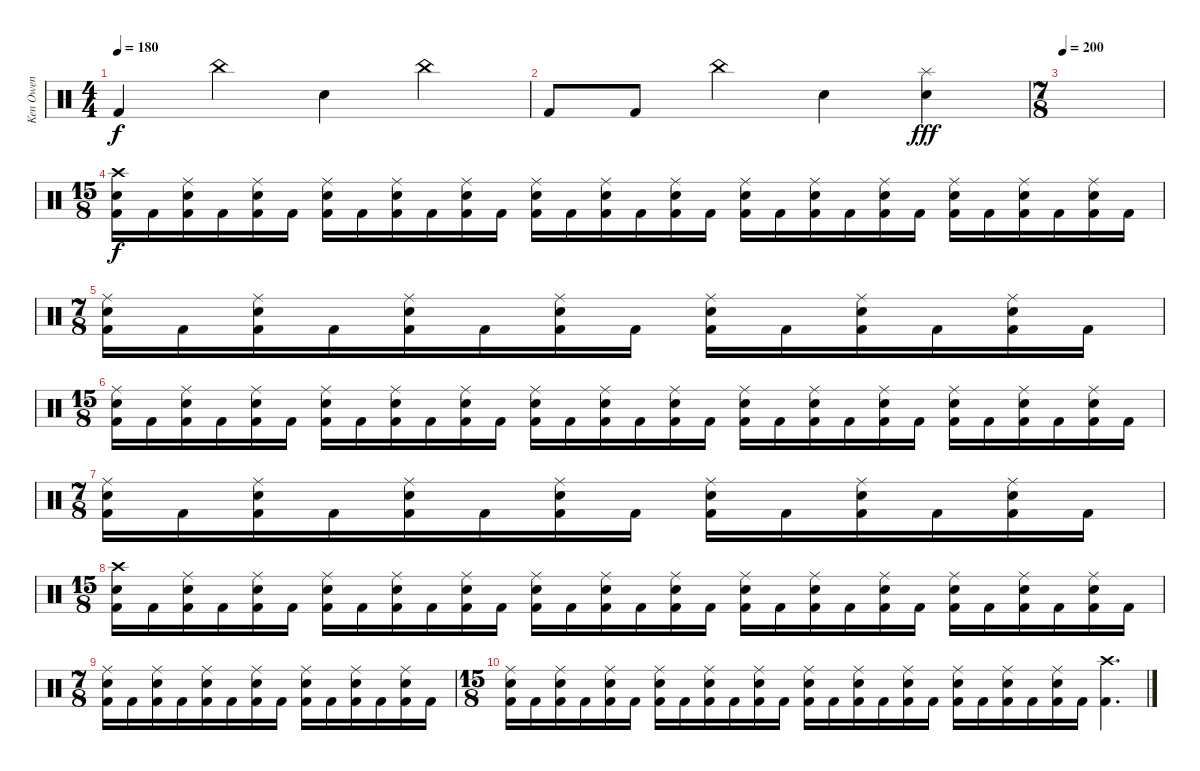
\track ("Ken Owen" "Ken Owen") {instrument percussion}
\staff {score}
\articulation defaults
\ts (4 4)
\tempo 180
\clef neutral
\ks c "Kick (hit) 2".4{dy f} "China (hit)".4 "Snare (hit) 2".4 "China (hit)".4
|
"Kick (hit) 2".8 "Kick (hit) 2".8 "China (hit)".4 "Snare (hit) 2".4 ("Splash (hit)" "Snare (hit) 2").4{dy fff} |
\ts (7 8)
\tempo 200
|
\ts (15 8)
("Crash high (hit)" "Snare (hit) 2" "Kick (hit) 2").16{dy f} "Kick (hit) 2".16 ("Ride (middle)" "Snare (hit) 2" "Kick (hit) 2").16 "Kick (hit) 2".16 ("Ride (middle)" "Snare (hit) 2" "Kick (hit) 2").16 "Kick (hit) 2".16 ("Ride (middle)" "Snare (hit) 2" "Kick (hit) 2").16 "Kick (hit) 2".16 ("Ride (middle)" "Snare (hit) 2" "Kick (hit) 2").16 "Kick (hit) 2".16 ("Ride (middle)" "Snare (hit) 2" "Kick (hit) 2").16 "Kick (hit) 2".16 ("Ride (middle)" "Snare (hit) 2" "Kick (hit) 2").16 "Kick (hit) 2".16 ("Ride (middle)" "Snare (hit) 2" "Kick (hit) 2").16 "Kick (hit) 2".16 ("Ride (middle)" "Snare (hit) 2" "Kick (hit) 2").16 "Kick (hit) 2".16 ("Ride (middle)" "Snare (hit) 2" "Kick (hit) 2").16 "Kick (hit) 2".16 ("Ride (middle)" "Snare (hit) 2" "Kick (hit) 2").16 "Kick (hit) 2".16 ("Ride (middle)" "Snare (hit) 2" "Kick (hit) 2").16 "Kick (hit) 2".16 ("Ride (middle)" "Snare (hit) 2" "Kick (hit) 2").16 "Kick (hit) 2".16 ("Ride (middle)" "Snare (hit) 2" "Kick (hit) 2").16 "Kick (hit) 2".16 ("Ride (middle)" "Snare (hit) 2" "Kick (hit) 2").16 "Kick (hit) 2".16 |
\ts (7 8)
("Ride (middle)" "Snare (hit) 2" "Kick (hit) 2").16 "Kick (hit) 2".16 ("Ride (middle)" "Snare (hit) 2" "Kick (hit) 2").16 "Kick (hit) 2".16 ("Ride (middle)" "Snare (hit) 2" "Kick (hit) 2").16 "Kick (hit) 2".16 ("Ride (middle)" "Snare (hit) 2" "Kick (hit) 2").16 "Kick (hit) 2".16 ("Ride (middle)" "Snare (hit) 2" "Kick (hit) 2").16 "Kick (hit) 2".16 ("Ride (middle)" "Snare (hit) 2" "Kick (hit) 2").16 "Kick (hit) 2".16 ("Ride (middle)" "Snare (hit) 2" "Kick (hit) 2").16 "Kick (hit) 2".16 |
\ts (15 8)
("Ride (middle)" "Snare (hit) 2" "Kick (hit) 2").16 "Kick (hit) 2".16 ("Ride (middle)" "Snare (hit) 2" "Kick (hit) 2").16 "Kick (hit) 2".16 ("Ride (middle)" "Snare (hit) 2" "Kick (hit) 2").16 "Kick (hit) 2".16 ("Ride (middle)" "Snare (hit) 2" "Kick (hit) 2").16 "Kick (hit) 2".16 ("Ride (middle)" "Snare (hit) 2" "Kick (hit) 2").16 "Kick (hit) 2".16 ("Ride (middle)" "Snare (hit) 2" "Kick (hit) 2").16 "Kick (hit) 2".16 ("Ride (middle)" "Snare (hit) 2" "Kick (hit) 2").16 "Kick (hit) 2".16 ("Ride (middle)" "Snare (hit) 2" "Kick (hit) 2").16 "Kick (hit) 2".16 ("Ride (middle)" "Snare (hit) 2" "Kick (hit) 2").16 "Kick (hit) 2".16 ("Ride (middle)" "Snare (hit) 2" "Kick (hit) 2").16 "Kick (hit) 2".16 ("Ride (middle)" "Snare (hit) 2" "Kick (hit) 2").16 "Kick (hit) 2".16 ("Ride (middle)" "Snare (hit) 2" "Kick (hit) 2").16 "Kick (hit) 2".16 ("Ride (middle)" "Snare (hit) 2" "Kick (hit) 2").16 "Kick (hit) 2".16 ("Ride (middle)" "Snare (hit) 2" "Kick (hit) 2").16 "Kick (hit) 2".16 ("Ride (middle)" "Snare (hit) 2" "Kick (hit) 2").16 "Kick (hit) 2".16 |
\ts (7 8)
("Ride (middle)" "Snare (hit) 2" "Kick (hit) 2").16 "Kick (hit) 2".16 ("Ride (middle)" "Snare (hit) 2" "Kick (hit) 2").16 "Kick (hit) 2".16 ("Ride (middle)" "Snare (hit) 2" "Kick (hit) 2").16 "Kick (hit) 2".16 ("Ride (middle)" "Snare (hit) 2" "Kick (hit) 2").16 "Kick (hit) 2".16 ("Ride (middle)" "Snare (hit) 2" "Kick (hit) 2").16 "Kick (hit) 2".16 ("Ride (middle)" "Snare (hit) 2" "Kick (hit) 2").16 "Kick (hit) 2".16 ("Ride (middle)" "Snare (hit) 2" "Kick (hit) 2").16 "Kick (hit) 2".16 |
\ts (15 8)
("Crash high (hit)" "Snare (hit) 2" "Kick (hit) 2").16 "Kick (hit) 2".16 ("Ride (middle)" "Snare (hit) 2" "Kick (hit) 2").16 "Kick (hit) 2".16 ("Ride (middle)" "Snare (hit) 2" "Kick (hit) 2").16 "Kick (hit) 2".16 ("Ride (middle)" "Snare (hit) 2" "Kick (hit) 2").16 "Kick (hit) 2".16 ("Ride (middle)" "Snare (hit) 2" "Kick (hit) 2").16 "Kick (hit) 2".16 ("Ride (middle)" "Snare (hit) 2" "Kick (hit) 2").16 "Kick (hit) 2".16 ("Ride (middle)" "Snare (hit) 2" "Kick (hit) 2").16 "Kick (hit) 2".16 ("Ride (middle)" "Snare (hit) 2" "Kick (hit) 2").16 "Kick (hit) 2".16 ("Ride (middle)" "Snare (hit) 2" "Kick (hit) 2").16 "Kick (hit) 2".16 ("Ride (middle)" "Snare (hit) 2" "Kick (hit) 2").16 "Kick (hit) 2".16 ("Ride (middle)" "Snare (hit) 2" "Kick (hit) 2").16 "Kick (hit) 2".16 ("Ride (middle)" "Snare (hit) 2" "Kick (hit) 2").16 "Kick (hit) 2".16 ("Ride (middle)" "Snare (hit) 2" "Kick (hit) 2").16 "Kick (hit) 2".16 ("Ride (middle)" "Snare (hit) 2" "Kick (hit) 2").16 "Kick (hit) 2".16 ("Ride (middle)" "Snare (hit) 2" "Kick (hit) 2").16 "Kick (hit) 2".16 |
\ts (7 8)
("Ride (middle)" "Snare (hit) 2" "Kick (hit) 2").16 "Kick (hit) 2".16 ("Ride (middle)" "Snare (hit) 2" "Kick (hit) 2").16 "Kick (hit) 2".16 ("Ride (middle)" "Snare (hit) 2" "Kick (hit) 2").16 "Kick (hit) 2".16 ("Ride (middle)" "Snare (hit) 2" "Kick (hit) 2").16 "Kick (hit) 2".16 ("Ride (middle)" "Snare (hit) 2" "Kick (hit) 2").16 "Kick (hit) 2".16 ("Ride (middle)" "Snare (hit) 2" "Kick (hit) 2").16 "Kick (hit) 2".16 ("Ride (middle)" "Snare (hit) 2" "Kick (hit) 2").16 "Kick (hit) 2".16 |
\ts (15 8)
("Ride (middle)" "Snare (hit) 2" "Kick (hit) 2").16 "Kick (hit) 2".16 ("Ride (middle)" "Snare (hit) 2" "Kick (hit) 2").16 "Kick (hit) 2".16 ("Ride (middle)" "Snare (hit) 2" "Kick (hit) 2").16 "Kick (hit) 2".16 ("Ride (middle)" "Snare (hit) 2" "Kick (hit) 2").16 "Kick (hit) 2".16 ("Ride (middle)" "Snare (hit) 2" "Kick (hit) 2").16 "Kick (hit) 2".16 ("Ride (middle)" "Snare (hit) 2" "Kick (hit) 2").16 "Kick (hit) 2".16 ("Ride (middle)" "Snare (hit) 2" "Kick (hit) 2").16 "Kick (hit) 2".16 ("Ride (middle)" "Snare (hit) 2" "Kick (hit) 2").16 "Kick (hit) 2".16 ("Ride (middle)" "Snare (hit) 2" "Kick (hit) 2").16 "Kick (hit) 2".16 ("Ride (middle)" "Snare (hit) 2" "Kick (hit) 2").16 "Kick (hit) 2".16 ("Ride (middle)" "Snare (hit) 2" "Kick (hit) 2").16 "Kick (hit) 2".16 ("Ride (middle)" "Snare (hit) 2" "Kick (hit) 2").16 "Kick (hit) 2".16 ("Crash high (hit)" "Kick (hit) 2").4{d}
